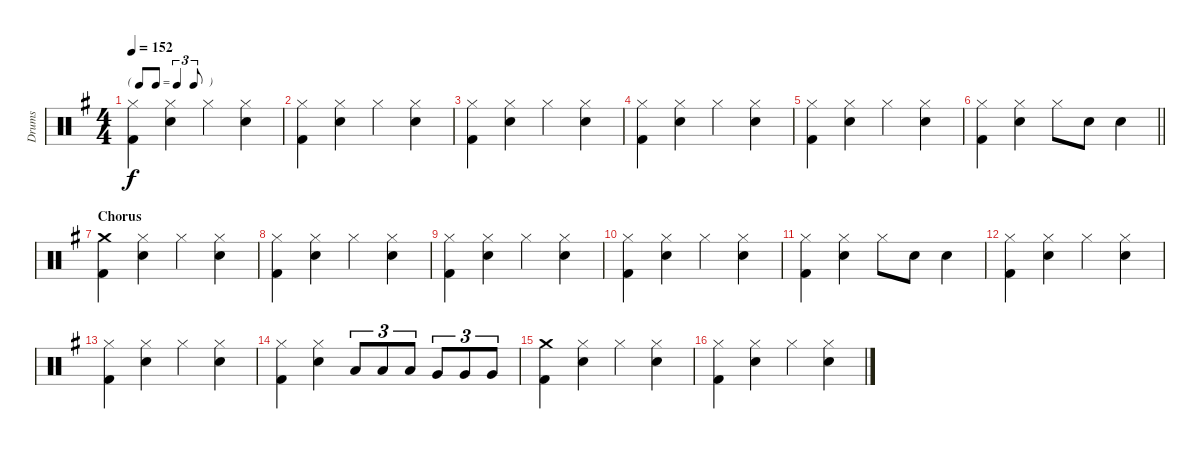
\track ("Drums" "Drums") {instrument percussion}
\staff {score}
\articulation defaults
\ts (4 4)
\tf triplet8th
\tempo 152
\clef neutral
\ks g
("Hi-Hat (closed)" "Kick (hit) 2").4{dy f} ("Hi-Hat (closed)" "Snare (hit) 2").4 "Hi-Hat (closed)".4 ("Hi-Hat (closed)" "Snare (hit) 2").4 |
("Hi-Hat (closed)" "Kick (hit) 2").4 ("Hi-Hat (closed)" "Snare (hit) 2").4 "Hi-Hat (closed)".4 ("Hi-Hat (closed)" "Snare (hit) 2").4 |
("Hi-Hat (closed)" "Kick (hit) 2").4 ("Hi-Hat (closed)" "Snare (hit) 2").4 "Hi-Hat (closed)".4 ("Hi-Hat (closed)" "Snare (hit) 2").4 |
("Hi-Hat (closed)" "Kick (hit) 2").4 ("Hi-Hat (closed)" "Snare (hit) 2").4 "Hi-Hat (closed)".4 ("Hi-Hat (closed)" "Snare (hit) 2").4 |
("Hi-Hat (closed)" "Kick (hit) 2").4 ("Hi-Hat (closed)" "Snare (hit) 2").4 "Hi-Hat (closed)".4 ("Hi-Hat (closed)" "Snare (hit) 2").4 |
\barLineRight lightlight
("Hi-Hat (closed)" "Kick (hit) 2").4 ("Hi-Hat (closed)" "Snare (hit) 2").4 "Hi-Hat (closed)".8 "Snare (hit) 2".8 "Snare (hit) 2".4 |
\section ("" "Chorus")
("Crash medium (hit)" "Kick (hit) 2").4 ("Hi-Hat (closed)" "Snare (hit) 2").4 "Hi-Hat (closed)".4 ("Hi-Hat (closed)" "Snare (hit) 2").4 |
("Hi-Hat (closed)" "Kick (hit) 2").4 ("Hi-Hat (closed)" "Snare (hit) 2").4 "Hi-Hat (closed)".4 ("Hi-Hat (closed)" "Snare (hit) 2").4 |
("Hi-Hat (closed)" "Kick (hit) 2").4 ("Hi-Hat (closed)" "Snare (hit) 2").4 "Hi-Hat (closed)".4 ("Hi-Hat (closed)" "Snare (hit) 2").4 |
("Hi-Hat (closed)" "Kick (hit) 2").4 ("Hi-Hat (closed)" "Snare (hit) 2").4 "Hi-Hat (closed)".4 ("Hi-Hat (closed)" "Snare (hit) 2").4 |
("Hi-Hat (closed)" "Kick (hit) 2").4 ("Hi-Hat (closed)" "Snare (hit) 2").4 "Hi-Hat (closed)".8 "Snare (hit) 2".8 "Snare (hit) 2".4 |
("Hi-Hat (closed)" "Kick (hit) 2").4 ("Hi-Hat (closed)" "Snare (hit) 2").4 "Hi-Hat (closed)".4 ("Hi-Hat (closed)" "Snare (hit) 2").4 |
("Hi-Hat (closed)" "Kick (hit) 2").4 ("Hi-Hat (closed)" "Snare (hit) 2").4 "Hi-Hat (closed)".4 ("Hi-Hat (closed)" "Snare (hit) 2").4 |
("Hi-Hat (closed)" "Kick (hit) 2").4 ("Hi-Hat (closed)" "Snare (hit) 2").4 "Low Tom (hit)".8{tu (3 2)} "Low Tom (hit)".8{tu (3 2)} "Low Tom (hit)".8{tu (3 2)} "Very Low Tom (hit)".8{tu (3 2)} "Very Low Tom (hit)".8{tu (3 2)} "Very Low Tom (hit)".8{tu (3 2)} |
("Crash medium (hit)" "Kick (hit) 2").4 ("Hi-Hat (closed)" "Snare (hit) 2").4 "Hi-Hat (closed)".4 ("Hi-Hat (closed)" "Snare (hit) 2").4 |
("Hi-Hat (closed)" "Kick (hit) 2").4 ("Hi-Hat (closed)" "Snare (hit) 2").4 "Hi-Hat (closed)".4 ("Hi-Hat (closed)" "Snare (hit) 2").4
